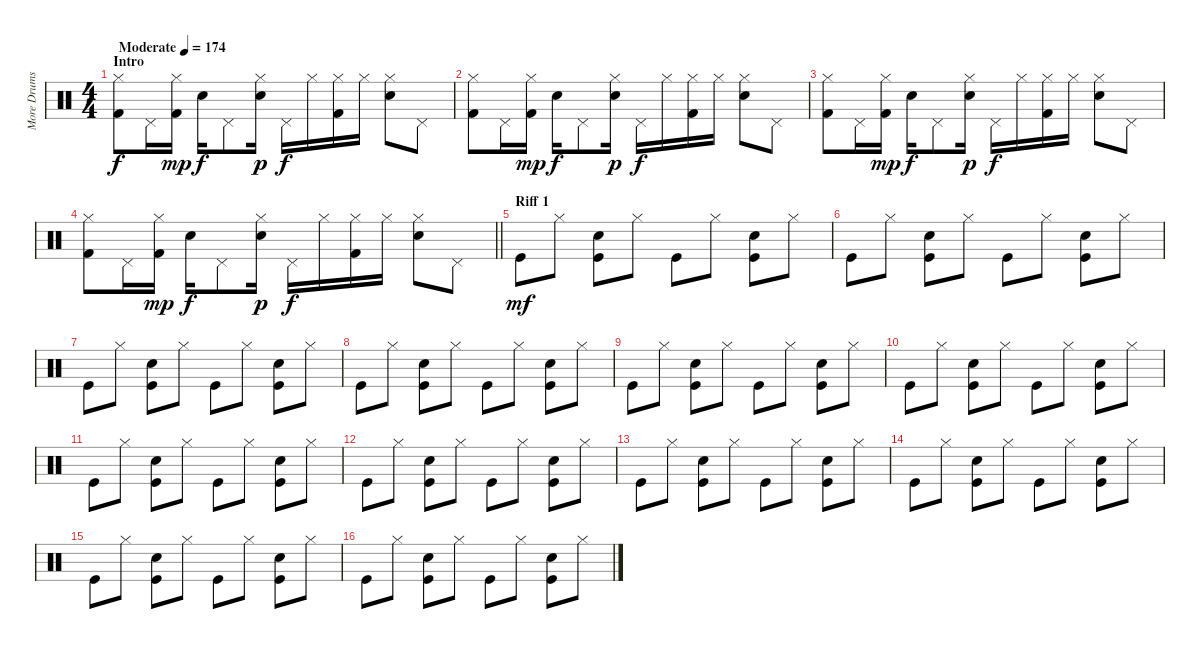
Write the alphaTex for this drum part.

\track ("More Drums" "More Drums") {instrument percussion}
\staff {score}
\articulation defaults
\ts (4 4)
\section ("" "Intro")
\tempo (174 "Moderate")
\clef neutral
\ks c
("Kick (hit) 2" "Hi-Hat (closed)").8{dy f} "Pedal Hi-Hat (hit)".16 ("Kick (hit) 2" "Hi-Hat (closed)").16{dy mp} "Snare (hit) 2".16{dy f} "Pedal Hi-Hat (hit)".8 ("Snare (hit) 2" "Hi-Hat (closed)").16{dy p} "Pedal Hi-Hat (hit)".16{dy f} "Hi-Hat (closed)".16 ("Kick (hit) 2" "Hi-Hat (closed)").16 "Hi-Hat (closed)".16 ("Snare (hit) 2" "Hi-Hat (closed)").8 "Pedal Hi-Hat (hit)".8 |
("Kick (hit) 2" "Hi-Hat (closed)").8 "Pedal Hi-Hat (hit)".16 ("Kick (hit) 2" "Hi-Hat (closed)").16{dy mp} "Snare (hit) 2".16{dy f} "Pedal Hi-Hat (hit)".8 ("Snare (hit) 2" "Hi-Hat (closed)").16{dy p} "Pedal Hi-Hat (hit)".16{dy f} "Hi-Hat (closed)".16 ("Kick (hit) 2" "Hi-Hat (closed)").16 "Hi-Hat (closed)".16 ("Snare (hit) 2" "Hi-Hat (closed)").8 "Pedal Hi-Hat (hit)".8 |
("Kick (hit) 2" "Hi-Hat (closed)").8 "Pedal Hi-Hat (hit)".16 ("Kick (hit) 2" "Hi-Hat (closed)").16{dy mp} "Snare (hit) 2".16{dy f} "Pedal Hi-Hat (hit)".8 ("Snare (hit) 2" "Hi-Hat (closed)").16{dy p} "Pedal Hi-Hat (hit)".16{dy f} "Hi-Hat (closed)".16 ("Kick (hit) 2" "Hi-Hat (closed)").16 "Hi-Hat (closed)".16 ("Snare (hit) 2" "Hi-Hat (closed)").8 "Pedal Hi-Hat (hit)".8 |
\barLineRight lightlight
("Kick (hit) 2" "Hi-Hat (closed)").8 "Pedal Hi-Hat (hit)".16 ("Kick (hit) 2" "Hi-Hat (closed)").16{dy mp} "Snare (hit) 2".16{dy f} "Pedal Hi-Hat (hit)".8 ("Snare (hit) 2" "Hi-Hat (closed)").16{dy p} "Pedal Hi-Hat (hit)".16{dy f} "Hi-Hat (closed)".16 ("Kick (hit) 2" "Hi-Hat (closed)").16 "Hi-Hat (closed)".16 ("Snare (hit) 2" "Hi-Hat (closed)").8 "Pedal Hi-Hat (hit)".8 |
\section ("" "Riff 1")
"Kick (hit)".8{dy mf} "Hi-Hat (closed)".8 ("Kick (hit)" "Electric Snare (hit)").8 "Hi-Hat (closed)".8 "Kick (hit)".8 "Hi-Hat (closed)".8 ("Kick (hit)" "Electric Snare (hit)").8 "Hi-Hat (closed)".8 |
"Kick (hit)".8 "Hi-Hat (closed)".8 ("Kick (hit)" "Electric Snare (hit)").8 "Hi-Hat (closed)".8 "Kick (hit)".8 "Hi-Hat (closed)".8 ("Kick (hit)" "Electric Snare (hit)").8 "Hi-Hat (closed)".8 |
"Kick (hit)".8 "Hi-Hat (closed)".8 ("Kick (hit)" "Electric Snare (hit)").8 "Hi-Hat (closed)".8 "Kick (hit)".8 "Hi-Hat (closed)".8 ("Kick (hit)" "Electric Snare (hit)").8 "Hi-Hat (closed)".8 |
"Kick (hit)".8 "Hi-Hat (closed)".8 ("Kick (hit)" "Electric Snare (hit)").8 "Hi-Hat (closed)".8 "Kick (hit)".8 "Hi-Hat (closed)".8 ("Kick (hit)" "Electric Snare (hit)").8 "Hi-Hat (closed)".8 |
"Kick (hit)".8 "Hi-Hat (closed)".8 ("Kick (hit)" "Electric Snare (hit)").8 "Hi-Hat (closed)".8 "Kick (hit)".8 "Hi-Hat (closed)".8 ("Kick (hit)" "Electric Snare (hit)").8 "Hi-Hat (closed)".8 |
"Kick (hit)".8 "Hi-Hat (closed)".8 ("Kick (hit)" "Electric Snare (hit)").8 "Hi-Hat (closed)".8 "Kick (hit)".8 "Hi-Hat (closed)".8 ("Kick (hit)" "Electric Snare (hit)").8 "Hi-Hat (closed)".8 |
"Kick (hit)".8 "Hi-Hat (closed)".8 ("Kick (hit)" "Electric Snare (hit)").8 "Hi-Hat (closed)".8 "Kick (hit)".8 "Hi-Hat (closed)".8 ("Kick (hit)" "Electric Snare (hit)").8 "Hi-Hat (closed)".8 |
"Kick (hit)".8 "Hi-Hat (closed)".8 ("Kick (hit)" "Electric Snare (hit)").8 "Hi-Hat (closed)".8 "Kick (hit)".8 "Hi-Hat (closed)".8 ("Kick (hit)" "Electric Snare (hit)").8 "Hi-Hat (closed)".8 |
"Kick (hit)".8 "Hi-Hat (closed)".8 ("Kick (hit)" "Electric Snare (hit)").8 "Hi-Hat (closed)".8 "Kick (hit)".8 "Hi-Hat (closed)".8 ("Kick (hit)" "Electric Snare (hit)").8 "Hi-Hat (closed)".8 |
"Kick (hit)".8 "Hi-Hat (closed)".8 ("Kick (hit)" "Electric Snare (hit)").8 "Hi-Hat (closed)".8 "Kick (hit)".8 "Hi-Hat (closed)".8 ("Kick (hit)" "Electric Snare (hit)").8 "Hi-Hat (closed)".8 |
"Kick (hit)".8 "Hi-Hat (closed)".8 ("Kick (hit)" "Electric Snare (hit)").8 "Hi-Hat (closed)".8 "Kick (hit)".8 "Hi-Hat (closed)".8 ("Kick (hit)" "Electric Snare (hit)").8 "Hi-Hat (closed)".8 |
"Kick (hit)".8 "Hi-Hat (closed)".8 ("Kick (hit)" "Electric Snare (hit)").8 "Hi-Hat (closed)".8 "Kick (hit)".8 "Hi-Hat (closed)".8 ("Kick (hit)" "Electric Snare (hit)").8 "Hi-Hat (closed)".8
